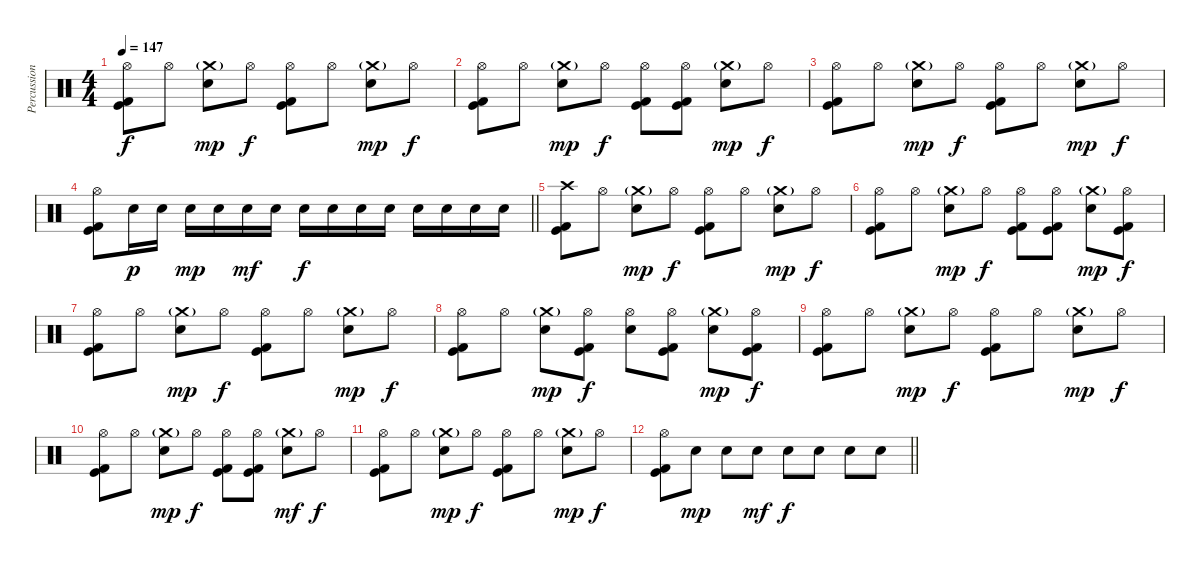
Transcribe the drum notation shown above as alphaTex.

\track ("Percussion" "Percussion") {instrument percussion}
\staff {score}
\articulation defaults
\ts (4 4)
\tempo 147
\clef neutral
\ks c
("Hi-Hat (open)" "Kick (hit)" "Kick (hit) 2").8{dy f} "Hi-Hat (open)".8 ("Crash medium (hit)"{g} "Electric Snare (hit)").8{dy mp} "Hi-Hat (open)".8{dy f} ("Hi-Hat (open)" "Kick (hit)" "Kick (hit) 2").8 "Hi-Hat (open)".8 ("Crash medium (hit)"{g} "Electric Snare (hit)").8{dy mp} "Hi-Hat (open)".8{dy f} |
("Hi-Hat (open)" "Kick (hit)" "Kick (hit) 2").8 "Hi-Hat (open)".8 ("Crash medium (hit)"{g} "Electric Snare (hit)").8{dy mp} "Hi-Hat (open)".8{dy f} ("Hi-Hat (open)" "Kick (hit)" "Kick (hit) 2").8 ("Hi-Hat (open)" "Kick (hit)" "Kick (hit) 2").8 ("Crash medium (hit)"{g} "Electric Snare (hit)").8{dy mp} "Hi-Hat (open)".8{dy f} |
("Hi-Hat (open)" "Kick (hit)" "Kick (hit) 2").8 "Hi-Hat (open)".8 ("Crash medium (hit)"{g} "Electric Snare (hit)").8{dy mp} "Hi-Hat (open)".8{dy f} ("Hi-Hat (open)" "Kick (hit)" "Kick (hit) 2").8 "Hi-Hat (open)".8 ("Crash medium (hit)"{g} "Electric Snare (hit)").8{dy mp} "Hi-Hat (open)".8{dy f} |
\barLineRight lightlight
("Hi-Hat (open)" "Kick (hit)" "Kick (hit) 2").8 "Electric Snare (hit)".16{dy p} "Electric Snare (hit)".16 "Electric Snare (hit)".16{dy mp} "Electric Snare (hit)".16 "Electric Snare (hit)".16{dy mf} "Electric Snare (hit)".16 "Electric Snare (hit)".16{dy f} "Electric Snare (hit)".16 "Electric Snare (hit)".16 "Electric Snare (hit)".16 "Electric Snare (hit)".16 "Electric Snare (hit)".16 "Electric Snare (hit)".16 "Electric Snare (hit)".16 |
\section ("" "")
("Crash high (hit)" "Kick (hit)" "Kick (hit) 2").8 "Hi-Hat (open)".8 ("Crash medium (hit)"{g} "Electric Snare (hit)").8{dy mp} "Hi-Hat (open)".8{dy f} ("Hi-Hat (open)" "Kick (hit)" "Kick (hit) 2").8 "Hi-Hat (open)".8 ("Crash medium (hit)"{g} "Electric Snare (hit)").8{dy mp} "Hi-Hat (open)".8{dy f} |
("Hi-Hat (open)" "Kick (hit)" "Kick (hit) 2").8 "Hi-Hat (open)".8 ("Crash medium (hit)"{g} "Electric Snare (hit)").8{dy mp} "Hi-Hat (open)".8{dy f} ("Hi-Hat (open)" "Kick (hit)" "Kick (hit) 2").8 ("Hi-Hat (open)" "Kick (hit)" "Kick (hit) 2").8 ("Crash medium (hit)"{g} "Electric Snare (hit)").8{dy mp} ("Hi-Hat (open)" "Kick (hit)" "Kick (hit) 2").8{dy f} |
("Hi-Hat (open)" "Kick (hit)" "Kick (hit) 2").8 "Hi-Hat (open)".8 ("Crash medium (hit)"{g} "Electric Snare (hit)").8{dy mp} "Hi-Hat (open)".8{dy f} ("Hi-Hat (open)" "Kick (hit)" "Kick (hit) 2").8 "Hi-Hat (open)".8 ("Crash medium (hit)"{g} "Electric Snare (hit)").8{dy mp} "Hi-Hat (open)".8{dy f} |
("Hi-Hat (open)" "Kick (hit)" "Kick (hit) 2").8 "Hi-Hat (open)".8 ("Crash medium (hit)"{g} "Electric Snare (hit)").8{dy mp} ("Hi-Hat (open)" "Kick (hit)" "Kick (hit) 2").8{dy f} ("Hi-Hat (open)" "Electric Snare (hit)").8 ("Hi-Hat (open)" "Kick (hit)" "Kick (hit) 2").8 ("Crash medium (hit)"{g} "Electric Snare (hit)").8{dy mp} ("Hi-Hat (open)" "Kick (hit)" "Kick (hit) 2").8{dy f} |
("Hi-Hat (open)" "Kick (hit)" "Kick (hit) 2").8 "Hi-Hat (open)".8 ("Crash medium (hit)"{g} "Electric Snare (hit)").8{dy mp} "Hi-Hat (open)".8{dy f} ("Hi-Hat (open)" "Kick (hit)" "Kick (hit) 2").8 "Hi-Hat (open)".8 ("Crash medium (hit)"{g} "Electric Snare (hit)").8{dy mp} "Hi-Hat (open)".8{dy f} |
("Hi-Hat (open)" "Kick (hit)" "Kick (hit) 2").8 "Hi-Hat (open)".8 ("Crash medium (hit)"{g} "Electric Snare (hit)").8{dy mp} "Hi-Hat (open)".8{dy f} ("Hi-Hat (open)" "Kick (hit)" "Kick (hit) 2").8 ("Hi-Hat (open)" "Kick (hit)" "Kick (hit) 2").8 ("Crash medium (hit)"{g} "Electric Snare (hit)").8{dy mf} "Hi-Hat (open)".8{dy f} |
("Hi-Hat (open)" "Kick (hit)" "Kick (hit) 2").8 "Hi-Hat (open)".8 ("Crash medium (hit)"{g} "Electric Snare (hit)").8{dy mp} "Hi-Hat (open)".8{dy f} ("Hi-Hat (open)" "Kick (hit)" "Kick (hit) 2").8 "Hi-Hat (open)".8 ("Crash medium (hit)"{g} "Electric Snare (hit)").8{dy mp} "Hi-Hat (open)".8{dy f} |
\barLineRight lightlight
("Hi-Hat (open)" "Kick (hit)" "Kick (hit) 2").8 "Electric Snare (hit)".8{dy mp} "Electric Snare (hit)".8 "Electric Snare (hit)".8{dy mf} "Electric Snare (hit)".8{dy f} "Electric Snare (hit)".8 "Electric Snare (hit)".8 "Electric Snare (hit)".8
